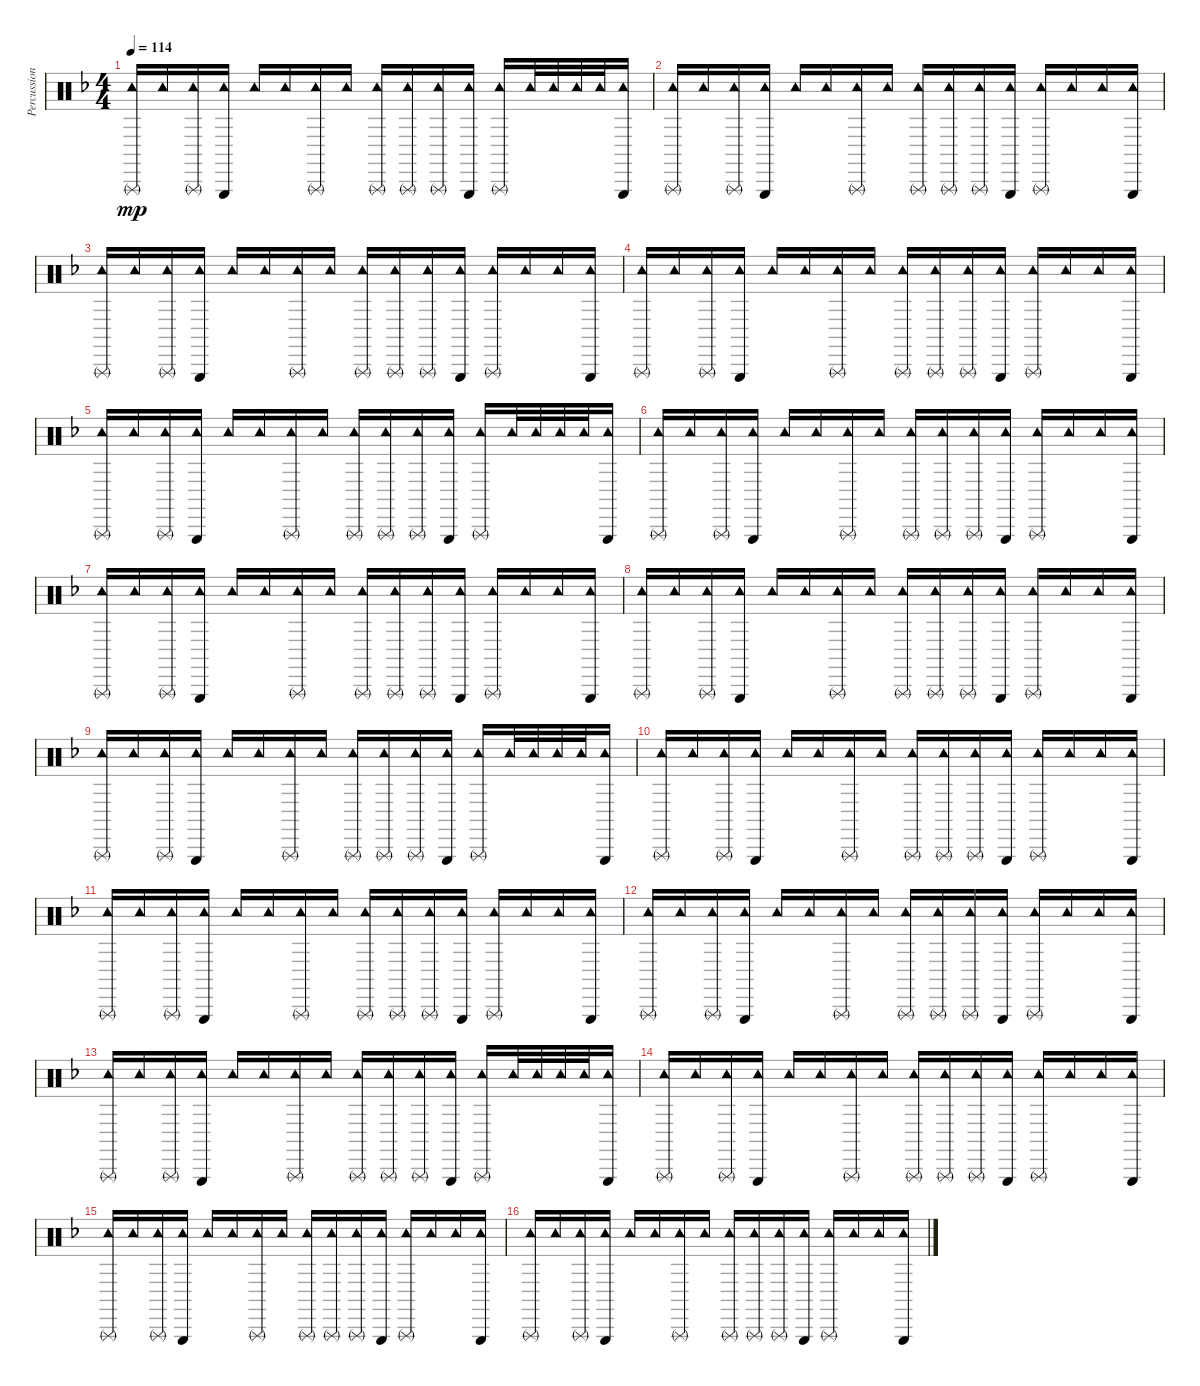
\track ("Percussion" "Percussion") {instrument percussion}
\staff {score}
\articulation defaults
\ts (4 4)
\tempo 114
\clef neutral
\ks f
("Triangle (rnute)" "Tambourine (hit)").16{dy mp} "Tambourine (hit)".16 ("Triangle (rnute)" "Tambourine (hit)").16 ("Triangle (hit)" "Tambourine (hit)").16 "Tambourine (hit)".16 "Tambourine (hit)".16 ("Triangle (rnute)" "Tambourine (hit)").16 "Tambourine (hit)".16 ("Triangle (rnute)" "Tambourine (hit)").16 ("Triangle (rnute)" "Tambourine (hit)").16 ("Triangle (rnute)" "Tambourine (hit)").16 ("Triangle (hit)" "Tambourine (hit)").16 ("Triangle (rnute)" "Tambourine (hit)").16 "Tambourine (hit)".32 "Tambourine (hit)".32 "Tambourine (hit)".32 "Tambourine (hit)".32 ("Triangle (hit)" "Tambourine (hit)").16 |
("Triangle (rnute)" "Tambourine (hit)").16 "Tambourine (hit)".16 ("Triangle (rnute)" "Tambourine (hit)").16 ("Triangle (hit)" "Tambourine (hit)").16 "Tambourine (hit)".16 "Tambourine (hit)".16 ("Triangle (rnute)" "Tambourine (hit)").16 "Tambourine (hit)".16 ("Triangle (rnute)" "Tambourine (hit)").16 ("Triangle (rnute)" "Tambourine (hit)").16 ("Triangle (rnute)" "Tambourine (hit)").16 ("Triangle (hit)" "Tambourine (hit)").16 ("Triangle (rnute)" "Tambourine (hit)").16 "Tambourine (hit)".16 "Tambourine (hit)".16 ("Triangle (hit)" "Tambourine (hit)").16 |
("Triangle (rnute)" "Tambourine (hit)").16 "Tambourine (hit)".16 ("Triangle (rnute)" "Tambourine (hit)").16 ("Triangle (hit)" "Tambourine (hit)").16 "Tambourine (hit)".16 "Tambourine (hit)".16 ("Triangle (rnute)" "Tambourine (hit)").16 "Tambourine (hit)".16 ("Triangle (rnute)" "Tambourine (hit)").16 ("Triangle (rnute)" "Tambourine (hit)").16 ("Triangle (rnute)" "Tambourine (hit)").16 ("Triangle (hit)" "Tambourine (hit)").16 ("Triangle (rnute)" "Tambourine (hit)").16 "Tambourine (hit)".16 "Tambourine (hit)".16 ("Triangle (hit)" "Tambourine (hit)").16 |
("Triangle (rnute)" "Tambourine (hit)").16 "Tambourine (hit)".16 ("Triangle (rnute)" "Tambourine (hit)").16 ("Triangle (hit)" "Tambourine (hit)").16 "Tambourine (hit)".16 "Tambourine (hit)".16 ("Triangle (rnute)" "Tambourine (hit)").16 "Tambourine (hit)".16 ("Triangle (rnute)" "Tambourine (hit)").16 ("Triangle (rnute)" "Tambourine (hit)").16 ("Triangle (rnute)" "Tambourine (hit)").16 ("Triangle (hit)" "Tambourine (hit)").16 ("Triangle (rnute)" "Tambourine (hit)").16 "Tambourine (hit)".16 "Tambourine (hit)".16 ("Triangle (hit)" "Tambourine (hit)").16 |
("Triangle (rnute)" "Tambourine (hit)").16 "Tambourine (hit)".16 ("Triangle (rnute)" "Tambourine (hit)").16 ("Triangle (hit)" "Tambourine (hit)").16 "Tambourine (hit)".16 "Tambourine (hit)".16 ("Triangle (rnute)" "Tambourine (hit)").16 "Tambourine (hit)".16 ("Triangle (rnute)" "Tambourine (hit)").16 ("Triangle (rnute)" "Tambourine (hit)").16 ("Triangle (rnute)" "Tambourine (hit)").16 ("Triangle (hit)" "Tambourine (hit)").16 ("Triangle (rnute)" "Tambourine (hit)").16 "Tambourine (hit)".32 "Tambourine (hit)".32 "Tambourine (hit)".32 "Tambourine (hit)".32 ("Triangle (hit)" "Tambourine (hit)").16 |
("Triangle (rnute)" "Tambourine (hit)").16 "Tambourine (hit)".16 ("Triangle (rnute)" "Tambourine (hit)").16 ("Triangle (hit)" "Tambourine (hit)").16 "Tambourine (hit)".16 "Tambourine (hit)".16 ("Triangle (rnute)" "Tambourine (hit)").16 "Tambourine (hit)".16 ("Triangle (rnute)" "Tambourine (hit)").16 ("Triangle (rnute)" "Tambourine (hit)").16 ("Triangle (rnute)" "Tambourine (hit)").16 ("Triangle (hit)" "Tambourine (hit)").16 ("Triangle (rnute)" "Tambourine (hit)").16 "Tambourine (hit)".16 "Tambourine (hit)".16 ("Triangle (hit)" "Tambourine (hit)").16 |
("Triangle (rnute)" "Tambourine (hit)").16 "Tambourine (hit)".16 ("Triangle (rnute)" "Tambourine (hit)").16 ("Triangle (hit)" "Tambourine (hit)").16 "Tambourine (hit)".16 "Tambourine (hit)".16 ("Triangle (rnute)" "Tambourine (hit)").16 "Tambourine (hit)".16 ("Triangle (rnute)" "Tambourine (hit)").16 ("Triangle (rnute)" "Tambourine (hit)").16 ("Triangle (rnute)" "Tambourine (hit)").16 ("Triangle (hit)" "Tambourine (hit)").16 ("Triangle (rnute)" "Tambourine (hit)").16 "Tambourine (hit)".16 "Tambourine (hit)".16 ("Triangle (hit)" "Tambourine (hit)").16 |
("Triangle (rnute)" "Tambourine (hit)").16 "Tambourine (hit)".16 ("Triangle (rnute)" "Tambourine (hit)").16 ("Triangle (hit)" "Tambourine (hit)").16 "Tambourine (hit)".16 "Tambourine (hit)".16 ("Triangle (rnute)" "Tambourine (hit)").16 "Tambourine (hit)".16 ("Triangle (rnute)" "Tambourine (hit)").16 ("Triangle (rnute)" "Tambourine (hit)").16 ("Triangle (rnute)" "Tambourine (hit)").16 ("Triangle (hit)" "Tambourine (hit)").16 ("Triangle (rnute)" "Tambourine (hit)").16 "Tambourine (hit)".16 "Tambourine (hit)".16 ("Triangle (hit)" "Tambourine (hit)").16 |
("Triangle (rnute)" "Tambourine (hit)").16 "Tambourine (hit)".16 ("Triangle (rnute)" "Tambourine (hit)").16 ("Triangle (hit)" "Tambourine (hit)").16 "Tambourine (hit)".16 "Tambourine (hit)".16 ("Triangle (rnute)" "Tambourine (hit)").16 "Tambourine (hit)".16 ("Triangle (rnute)" "Tambourine (hit)").16 ("Triangle (rnute)" "Tambourine (hit)").16 ("Triangle (rnute)" "Tambourine (hit)").16 ("Triangle (hit)" "Tambourine (hit)").16 ("Triangle (rnute)" "Tambourine (hit)").16 "Tambourine (hit)".32 "Tambourine (hit)".32 "Tambourine (hit)".32 "Tambourine (hit)".32 ("Triangle (hit)" "Tambourine (hit)").16 |
("Triangle (rnute)" "Tambourine (hit)").16 "Tambourine (hit)".16 ("Triangle (rnute)" "Tambourine (hit)").16 ("Triangle (hit)" "Tambourine (hit)").16 "Tambourine (hit)".16 "Tambourine (hit)".16 ("Triangle (rnute)" "Tambourine (hit)").16 "Tambourine (hit)".16 ("Triangle (rnute)" "Tambourine (hit)").16 ("Triangle (rnute)" "Tambourine (hit)").16 ("Triangle (rnute)" "Tambourine (hit)").16 ("Triangle (hit)" "Tambourine (hit)").16 ("Triangle (rnute)" "Tambourine (hit)").16 "Tambourine (hit)".16 "Tambourine (hit)".16 ("Triangle (hit)" "Tambourine (hit)").16 |
("Triangle (rnute)" "Tambourine (hit)").16 "Tambourine (hit)".16 ("Triangle (rnute)" "Tambourine (hit)").16 ("Triangle (hit)" "Tambourine (hit)").16 "Tambourine (hit)".16 "Tambourine (hit)".16 ("Triangle (rnute)" "Tambourine (hit)").16 "Tambourine (hit)".16 ("Triangle (rnute)" "Tambourine (hit)").16 ("Triangle (rnute)" "Tambourine (hit)").16 ("Triangle (rnute)" "Tambourine (hit)").16 ("Triangle (hit)" "Tambourine (hit)").16 ("Triangle (rnute)" "Tambourine (hit)").16 "Tambourine (hit)".16 "Tambourine (hit)".16 ("Triangle (hit)" "Tambourine (hit)").16 |
("Triangle (rnute)" "Tambourine (hit)").16 "Tambourine (hit)".16 ("Triangle (rnute)" "Tambourine (hit)").16 ("Triangle (hit)" "Tambourine (hit)").16 "Tambourine (hit)".16 "Tambourine (hit)".16 ("Triangle (rnute)" "Tambourine (hit)").16 "Tambourine (hit)".16 ("Triangle (rnute)" "Tambourine (hit)").16 ("Triangle (rnute)" "Tambourine (hit)").16 ("Triangle (rnute)" "Tambourine (hit)").16 ("Triangle (hit)" "Tambourine (hit)").16 ("Triangle (rnute)" "Tambourine (hit)").16 "Tambourine (hit)".16 "Tambourine (hit)".16 ("Triangle (hit)" "Tambourine (hit)").16 |
("Triangle (rnute)" "Tambourine (hit)").16 "Tambourine (hit)".16 ("Triangle (rnute)" "Tambourine (hit)").16 ("Triangle (hit)" "Tambourine (hit)").16 "Tambourine (hit)".16 "Tambourine (hit)".16 ("Triangle (rnute)" "Tambourine (hit)").16 "Tambourine (hit)".16 ("Triangle (rnute)" "Tambourine (hit)").16 ("Triangle (rnute)" "Tambourine (hit)").16 ("Triangle (rnute)" "Tambourine (hit)").16 ("Triangle (hit)" "Tambourine (hit)").16 ("Triangle (rnute)" "Tambourine (hit)").16 "Tambourine (hit)".32 "Tambourine (hit)".32 "Tambourine (hit)".32 "Tambourine (hit)".32 ("Triangle (hit)" "Tambourine (hit)").16 |
("Triangle (rnute)" "Tambourine (hit)").16 "Tambourine (hit)".16 ("Triangle (rnute)" "Tambourine (hit)").16 ("Triangle (hit)" "Tambourine (hit)").16 "Tambourine (hit)".16 "Tambourine (hit)".16 ("Triangle (rnute)" "Tambourine (hit)").16 "Tambourine (hit)".16 ("Triangle (rnute)" "Tambourine (hit)").16 ("Triangle (rnute)" "Tambourine (hit)").16 ("Triangle (rnute)" "Tambourine (hit)").16 ("Triangle (hit)" "Tambourine (hit)").16 ("Triangle (rnute)" "Tambourine (hit)").16 "Tambourine (hit)".16 "Tambourine (hit)".16 ("Triangle (hit)" "Tambourine (hit)").16 |
("Triangle (rnute)" "Tambourine (hit)").16 "Tambourine (hit)".16 ("Triangle (rnute)" "Tambourine (hit)").16 ("Triangle (hit)" "Tambourine (hit)").16 "Tambourine (hit)".16 "Tambourine (hit)".16 ("Triangle (rnute)" "Tambourine (hit)").16 "Tambourine (hit)".16 ("Triangle (rnute)" "Tambourine (hit)").16 ("Triangle (rnute)" "Tambourine (hit)").16 ("Triangle (rnute)" "Tambourine (hit)").16 ("Triangle (hit)" "Tambourine (hit)").16 ("Triangle (rnute)" "Tambourine (hit)").16 "Tambourine (hit)".16 "Tambourine (hit)".16 ("Triangle (hit)" "Tambourine (hit)").16 |
("Triangle (rnute)" "Tambourine (hit)").16 "Tambourine (hit)".16 ("Triangle (rnute)" "Tambourine (hit)").16 ("Triangle (hit)" "Tambourine (hit)").16 "Tambourine (hit)".16 "Tambourine (hit)".16 ("Triangle (rnute)" "Tambourine (hit)").16 "Tambourine (hit)".16 ("Triangle (rnute)" "Tambourine (hit)").16 ("Triangle (rnute)" "Tambourine (hit)").16 ("Triangle (rnute)" "Tambourine (hit)").16 ("Triangle (hit)" "Tambourine (hit)").16 ("Triangle (rnute)" "Tambourine (hit)").16 "Tambourine (hit)".16 "Tambourine (hit)".16 ("Triangle (hit)" "Tambourine (hit)").16
